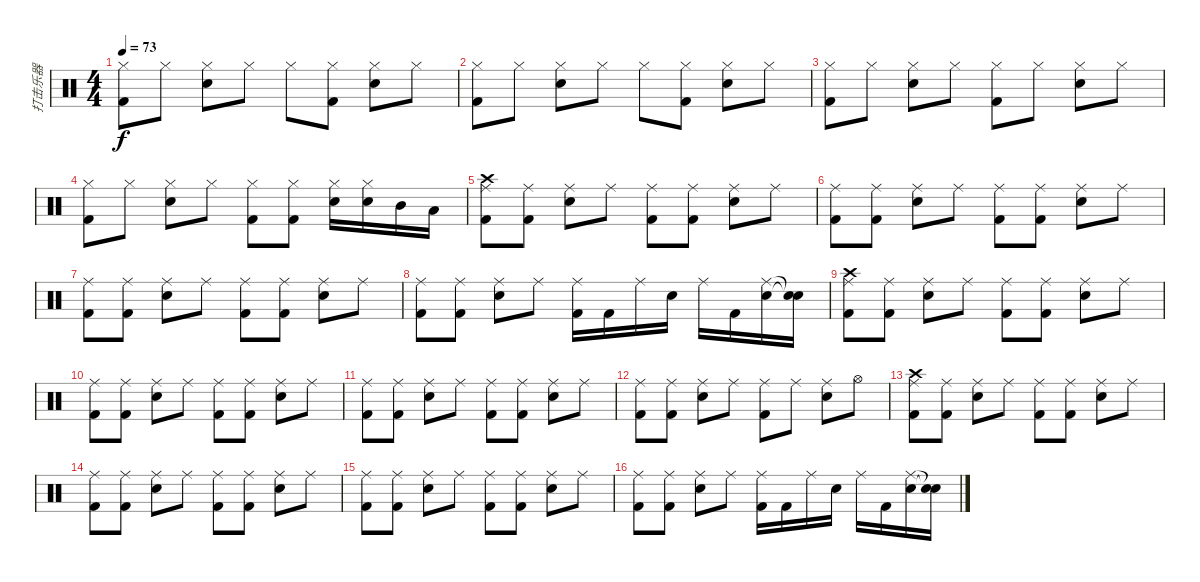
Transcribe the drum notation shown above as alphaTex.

\track ("打击乐器" "打击乐器") {instrument percussion}
\staff {score}
\articulation defaults
\ts (4 4)
\tempo 73
\clef neutral
\ks c
("Hi-Hat (closed)" "Kick (hit) 2").8{dy f} "Hi-Hat (closed)".8 ("Hi-Hat (closed)" "Electric Snare (hit)").8 "Hi-Hat (closed)".8 "Hi-Hat (closed)".8 ("Hi-Hat (closed)" "Kick (hit) 2").8 ("Hi-Hat (closed)" "Electric Snare (hit)").8 "Hi-Hat (closed)".8 |
("Hi-Hat (closed)" "Kick (hit) 2").8 "Hi-Hat (closed)".8 ("Hi-Hat (closed)" "Electric Snare (hit)").8 "Hi-Hat (closed)".8 "Hi-Hat (closed)".8 ("Hi-Hat (closed)" "Kick (hit) 2").8 ("Hi-Hat (closed)" "Electric Snare (hit)").8 "Hi-Hat (closed)".8 |
("Hi-Hat (closed)" "Kick (hit) 2").8 "Hi-Hat (closed)".8 ("Hi-Hat (closed)" "Electric Snare (hit)").8 "Hi-Hat (closed)".8 ("Hi-Hat (closed)" "Kick (hit) 2").8 "Hi-Hat (closed)".8 ("Hi-Hat (closed)" "Electric Snare (hit)").8 "Hi-Hat (closed)".8 |
("Hi-Hat (closed)" "Kick (hit) 2").8 "Hi-Hat (closed)".8 ("Hi-Hat (closed)" "Electric Snare (hit)").8 "Hi-Hat (closed)".8 ("Hi-Hat (closed)" "Kick (hit) 2").8 ("Hi-Hat (closed)" "Kick (hit) 2").8 ("Hi-Hat (closed)" "Electric Snare (hit)").16 ("Hi-Hat (closed)" "Electric Snare (hit)").16 "Mid Tom (hit)".16 "Low Tom (hit)".16 |
("Crash high (hit)" "Ride (middle)" "Kick (hit) 2").8 ("Ride (middle)" "Kick (hit) 2").8 ("Ride (middle)" "Electric Snare (hit)").8 "Ride (middle)".8 ("Ride (middle)" "Kick (hit) 2").8 ("Ride (middle)" "Kick (hit) 2").8 ("Ride (middle)" "Electric Snare (hit)").8 "Ride (middle)".8 |
("Ride (middle)" "Kick (hit) 2").8 ("Ride (middle)" "Kick (hit) 2").8 ("Ride (middle)" "Electric Snare (hit)").8 "Ride (middle)".8 ("Ride (middle)" "Kick (hit) 2").8 ("Ride (middle)" "Kick (hit) 2").8 ("Ride (middle)" "Electric Snare (hit)").8 "Ride (middle)".8 |
("Ride (middle)" "Kick (hit) 2").8 ("Ride (middle)" "Kick (hit) 2").8 ("Ride (middle)" "Electric Snare (hit)").8 "Ride (middle)".8 ("Ride (middle)" "Kick (hit) 2").8 ("Ride (middle)" "Kick (hit) 2").8 ("Ride (middle)" "Electric Snare (hit)").8 "Ride (middle)".8 |
("Ride (middle)" "Kick (hit) 2").8 ("Ride (middle)" "Kick (hit) 2").8 ("Ride (middle)" "Electric Snare (hit)").8 "Ride (middle)".8 ("Ride (middle)" "Kick (hit) 2").16 "Kick (hit) 2".16 "Ride (middle)".16 "Electric Snare (hit)".16 "Ride (middle)".16 "Kick (hit) 2".16 ("Electric Snare (hit)" "Ride (middle)").16 ("Snare (hit)"{t} "Snare (hit)"{t}).16 |
("Crash high (hit)" "Ride (middle)" "Kick (hit) 2").8 ("Ride (middle)" "Kick (hit) 2").8 ("Ride (middle)" "Electric Snare (hit)").8 "Ride (middle)".8 ("Ride (middle)" "Kick (hit) 2").8 ("Ride (middle)" "Kick (hit) 2").8 ("Ride (middle)" "Electric Snare (hit)").8 "Ride (middle)".8 |
("Ride (middle)" "Kick (hit) 2").8 ("Ride (middle)" "Kick (hit) 2").8 ("Ride (middle)" "Electric Snare (hit)").8 "Ride (middle)".8 ("Ride (middle)" "Kick (hit) 2").8 ("Ride (middle)" "Kick (hit) 2").8 ("Ride (middle)" "Electric Snare (hit)").8 "Ride (middle)".8 |
("Ride (middle)" "Kick (hit) 2").8 ("Ride (middle)" "Kick (hit) 2").8 ("Ride (middle)" "Electric Snare (hit)").8 "Ride (middle)".8 ("Ride (middle)" "Kick (hit) 2").8 ("Ride (middle)" "Kick (hit) 2").8 ("Ride (middle)" "Electric Snare (hit)").8 "Ride (middle)".8 |
("Ride (middle)" "Kick (hit) 2").8 ("Ride (middle)" "Kick (hit) 2").8 ("Ride (middle)" "Electric Snare (hit)").8 "Ride (middle)".8 ("Ride (middle)" "Kick (hit) 2").8 "Ride (middle)".8 ("Ride (middle)" "Electric Snare (hit)").8 "Hi-Hat (open)".8 |
("Crash high (hit)" "Ride (middle)" "Kick (hit) 2").8 ("Ride (middle)" "Kick (hit) 2").8 ("Ride (middle)" "Electric Snare (hit)").8 "Ride (middle)".8 ("Ride (middle)" "Kick (hit) 2").8 ("Ride (middle)" "Kick (hit) 2").8 ("Ride (middle)" "Electric Snare (hit)").8 "Ride (middle)".8 |
("Ride (middle)" "Kick (hit) 2").8 ("Ride (middle)" "Kick (hit) 2").8 ("Ride (middle)" "Electric Snare (hit)").8 "Ride (middle)".8 ("Ride (middle)" "Kick (hit) 2").8 ("Ride (middle)" "Kick (hit) 2").8 ("Ride (middle)" "Electric Snare (hit)").8 "Ride (middle)".8 |
("Ride (middle)" "Kick (hit) 2").8 ("Ride (middle)" "Kick (hit) 2").8 ("Ride (middle)" "Electric Snare (hit)").8 "Ride (middle)".8 ("Ride (middle)" "Kick (hit) 2").8 ("Ride (middle)" "Kick (hit) 2").8 ("Ride (middle)" "Electric Snare (hit)").8 "Ride (middle)".8 |
("Ride (middle)" "Kick (hit) 2").8 ("Ride (middle)" "Kick (hit) 2").8 ("Ride (middle)" "Electric Snare (hit)").8 "Ride (middle)".8 ("Ride (middle)" "Kick (hit) 2").16 "Kick (hit) 2".16 "Ride (middle)".16 "Electric Snare (hit)".16 "Ride (middle)".16 "Kick (hit) 2".16 ("Electric Snare (hit)" "Ride (middle)").16 ("Snare (hit)"{t} "Snare (hit)"{t}).16
